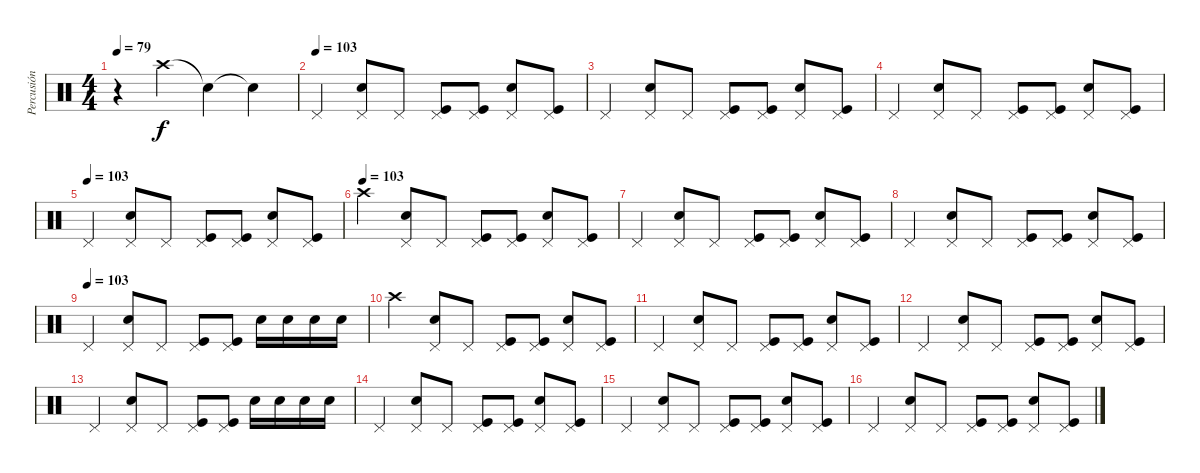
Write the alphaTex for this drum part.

\track ("Percusión" "Percusión") {instrument percussion}
\staff {score}
\articulation defaults
\ts (4 4)
\tempo 79
\clef neutral
\ks c
r.4{dy f} "Crash high (hit)".4 "Snare (hit)"{t}.4 "Snare (hit)"{t}.4 |
\tempo (103)
"Pedal Hi-Hat (hit)".4 ("Pedal Hi-Hat (hit)" "Snare (hit) 2").8 "Pedal Hi-Hat (hit)".8 ("Pedal Hi-Hat (hit)" "Kick (hit)").8 ("Pedal Hi-Hat (hit)" "Kick (hit)").8 ("Pedal Hi-Hat (hit)" "Snare (hit) 2").8 ("Pedal Hi-Hat (hit)" "Kick (hit)").8 |
"Pedal Hi-Hat (hit)".4 ("Pedal Hi-Hat (hit)" "Snare (hit) 2").8 "Pedal Hi-Hat (hit)".8 ("Pedal Hi-Hat (hit)" "Kick (hit)").8 ("Pedal Hi-Hat (hit)" "Kick (hit)").8 ("Pedal Hi-Hat (hit)" "Snare (hit) 2").8 ("Pedal Hi-Hat (hit)" "Kick (hit)").8 |
"Pedal Hi-Hat (hit)".4 ("Pedal Hi-Hat (hit)" "Snare (hit) 2").8 "Pedal Hi-Hat (hit)".8 ("Pedal Hi-Hat (hit)" "Kick (hit)").8 ("Pedal Hi-Hat (hit)" "Kick (hit)").8 ("Pedal Hi-Hat (hit)" "Snare (hit) 2").8 ("Pedal Hi-Hat (hit)" "Kick (hit)").8 |
\tempo (103)
"Pedal Hi-Hat (hit)".4 ("Pedal Hi-Hat (hit)" "Snare (hit) 2").8 "Pedal Hi-Hat (hit)".8 ("Pedal Hi-Hat (hit)" "Kick (hit)").8 ("Pedal Hi-Hat (hit)" "Kick (hit)").8 ("Pedal Hi-Hat (hit)" "Snare (hit) 2").8 ("Pedal Hi-Hat (hit)" "Kick (hit)").8 |
\tempo (103)
"Crash high (hit)".4 ("Pedal Hi-Hat (hit)" "Snare (hit) 2").8 "Pedal Hi-Hat (hit)".8 ("Pedal Hi-Hat (hit)" "Kick (hit)").8 ("Pedal Hi-Hat (hit)" "Kick (hit)").8 ("Pedal Hi-Hat (hit)" "Snare (hit) 2").8 ("Pedal Hi-Hat (hit)" "Kick (hit)").8 |
"Pedal Hi-Hat (hit)".4 ("Pedal Hi-Hat (hit)" "Snare (hit) 2").8 "Pedal Hi-Hat (hit)".8 ("Pedal Hi-Hat (hit)" "Kick (hit)").8 ("Pedal Hi-Hat (hit)" "Kick (hit)").8 ("Pedal Hi-Hat (hit)" "Snare (hit) 2").8 ("Pedal Hi-Hat (hit)" "Kick (hit)").8 |
"Pedal Hi-Hat (hit)".4 ("Pedal Hi-Hat (hit)" "Snare (hit) 2").8 "Pedal Hi-Hat (hit)".8 ("Pedal Hi-Hat (hit)" "Kick (hit)").8 ("Pedal Hi-Hat (hit)" "Kick (hit)").8 ("Pedal Hi-Hat (hit)" "Snare (hit) 2").8 ("Pedal Hi-Hat (hit)" "Kick (hit)").8 |
\tempo (103)
"Pedal Hi-Hat (hit)".4 ("Pedal Hi-Hat (hit)" "Snare (hit) 2").8 "Pedal Hi-Hat (hit)".8 ("Pedal Hi-Hat (hit)" "Kick (hit)").8 ("Pedal Hi-Hat (hit)" "Kick (hit)").8 "Snare (hit) 2".16 "Snare (hit) 2".16 "Snare (hit) 2".16 "Snare (hit) 2".16 |
"Crash high (hit)".4 ("Pedal Hi-Hat (hit)" "Snare (hit) 2").8 "Pedal Hi-Hat (hit)".8 ("Pedal Hi-Hat (hit)" "Kick (hit)").8 ("Pedal Hi-Hat (hit)" "Kick (hit)").8 ("Pedal Hi-Hat (hit)" "Snare (hit) 2").8 ("Pedal Hi-Hat (hit)" "Kick (hit)").8 |
"Pedal Hi-Hat (hit)".4 ("Pedal Hi-Hat (hit)" "Snare (hit) 2").8 "Pedal Hi-Hat (hit)".8 ("Pedal Hi-Hat (hit)" "Kick (hit)").8 ("Pedal Hi-Hat (hit)" "Kick (hit)").8 ("Pedal Hi-Hat (hit)" "Snare (hit) 2").8 ("Pedal Hi-Hat (hit)" "Kick (hit)").8 |
"Pedal Hi-Hat (hit)".4 ("Pedal Hi-Hat (hit)" "Snare (hit) 2").8 "Pedal Hi-Hat (hit)".8 ("Pedal Hi-Hat (hit)" "Kick (hit)").8 ("Pedal Hi-Hat (hit)" "Kick (hit)").8 ("Pedal Hi-Hat (hit)" "Snare (hit) 2").8 ("Pedal Hi-Hat (hit)" "Kick (hit)").8 |
"Pedal Hi-Hat (hit)".4 ("Pedal Hi-Hat (hit)" "Snare (hit) 2").8 "Pedal Hi-Hat (hit)".8 ("Pedal Hi-Hat (hit)" "Kick (hit)").8 ("Pedal Hi-Hat (hit)" "Kick (hit)").8 "Snare (hit) 2".16 "Snare (hit) 2".16 "Snare (hit) 2".16 "Snare (hit) 2".16 |
"Pedal Hi-Hat (hit)".4 ("Pedal Hi-Hat (hit)" "Snare (hit) 2").8 "Pedal Hi-Hat (hit)".8 ("Pedal Hi-Hat (hit)" "Kick (hit)").8 ("Pedal Hi-Hat (hit)" "Kick (hit)").8 ("Pedal Hi-Hat (hit)" "Snare (hit) 2").8 ("Pedal Hi-Hat (hit)" "Kick (hit)").8 |
"Pedal Hi-Hat (hit)".4 ("Pedal Hi-Hat (hit)" "Snare (hit) 2").8 "Pedal Hi-Hat (hit)".8 ("Pedal Hi-Hat (hit)" "Kick (hit)").8 ("Pedal Hi-Hat (hit)" "Kick (hit)").8 ("Pedal Hi-Hat (hit)" "Snare (hit) 2").8 ("Pedal Hi-Hat (hit)" "Kick (hit)").8 |
"Pedal Hi-Hat (hit)".4 ("Pedal Hi-Hat (hit)" "Snare (hit) 2").8 "Pedal Hi-Hat (hit)".8 ("Pedal Hi-Hat (hit)" "Kick (hit)").8 ("Pedal Hi-Hat (hit)" "Kick (hit)").8 ("Pedal Hi-Hat (hit)" "Snare (hit) 2").8 ("Pedal Hi-Hat (hit)" "Kick (hit)").8
